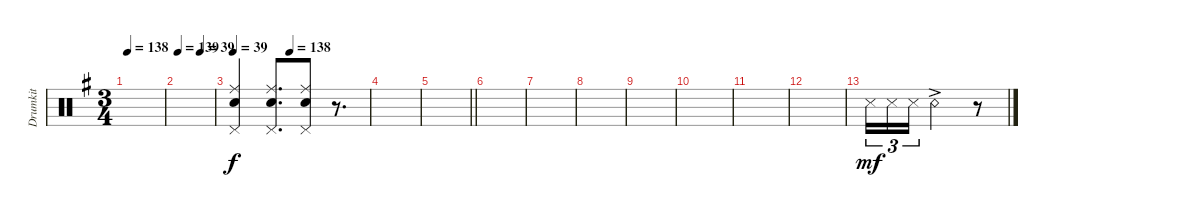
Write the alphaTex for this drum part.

\track ("Drumkit" "Drumkit") {instrument percussion}
\staff {score}
\articulation defaults
\ts (3 4)
\tempo 138
\clef neutral
\ks eminor
|
\tempo 139
\tempo (39 0.625)
|
\tempo 39
\tempo (138 0.4166666666666667)
("Pedal Hi-Hat (hit)" "Ride (middle)" "Snare (hit) 2").4 ("Pedal Hi-Hat (hit)" "Ride (middle)" "Snare (hit) 2").8{d} ("Pedal Hi-Hat (hit)" "Ride (middle)" "Snare (hit) 2").8 r.8{d} |
|
\barLineRight lightlight
|
|
|
|
|
|
|
|
"Snare (side stick) 3".16{tu (3 2) dy mf} "Snare (side stick) 3".16{tu (3 2)} "Snare (side stick) 3".16{tu (3 2)} "Snare (rim shot)"{ac}.2 r.8
